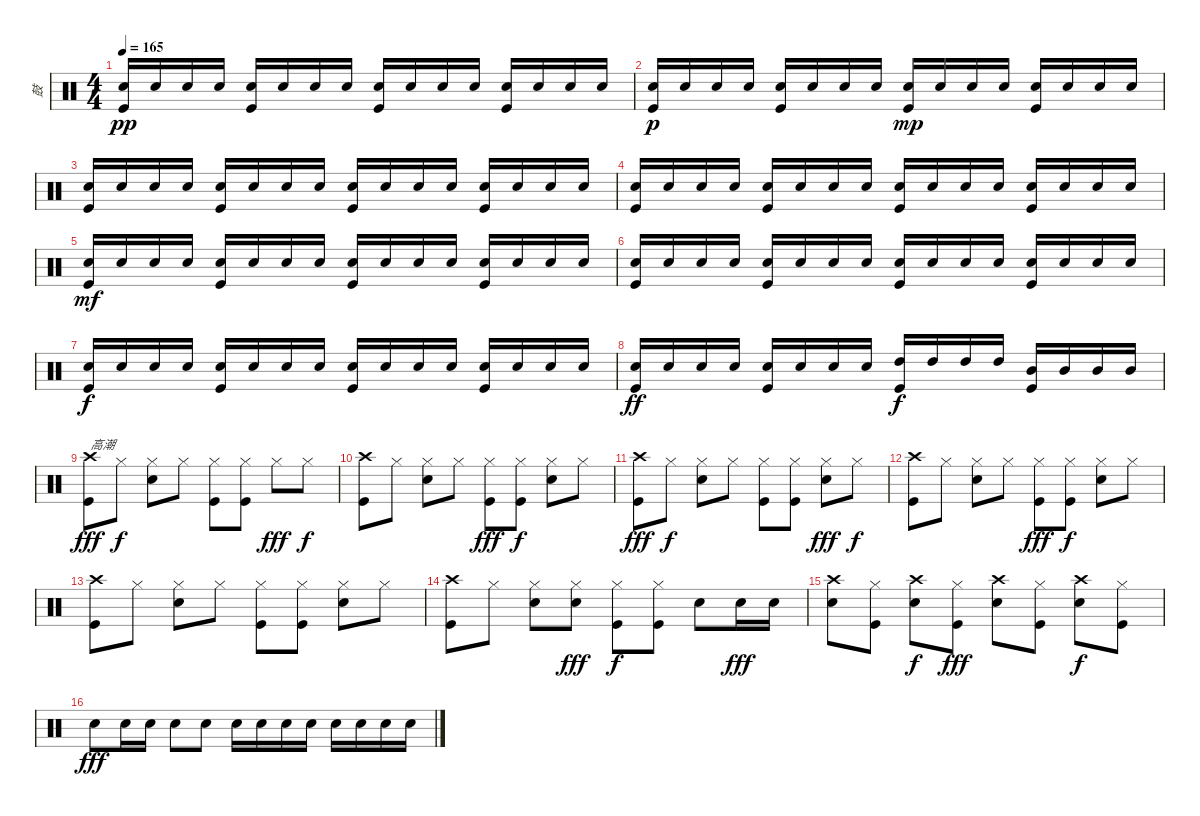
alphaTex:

\track ("鼓" "鼓") {instrument percussion}
\staff {score}
\articulation defaults
\ts (4 4)
\tempo 165
\clef neutral
\ks c
("Snare (hit) 2" "Kick (hit)").16{dy pp} "Snare (hit) 2".16 "Snare (hit) 2".16 "Snare (hit) 2".16 ("Snare (hit) 2" "Kick (hit)").16 "Snare (hit) 2".16 "Snare (hit) 2".16 "Snare (hit) 2".16 ("Snare (hit) 2" "Kick (hit)").16 "Snare (hit) 2".16 "Snare (hit) 2".16 "Snare (hit) 2".16 ("Snare (hit) 2" "Kick (hit)").16 "Snare (hit) 2".16 "Snare (hit) 2".16 "Snare (hit) 2".16 |
("Snare (hit) 2" "Kick (hit)").16{dy p} "Snare (hit) 2".16 "Snare (hit) 2".16 "Snare (hit) 2".16 ("Snare (hit) 2" "Kick (hit)").16 "Snare (hit) 2".16 "Snare (hit) 2".16 "Snare (hit) 2".16 ("Snare (hit) 2" "Kick (hit)").16{dy mp} "Snare (hit) 2".16 "Snare (hit) 2".16 "Snare (hit) 2".16 ("Snare (hit) 2" "Kick (hit)").16 "Snare (hit) 2".16 "Snare (hit) 2".16 "Snare (hit) 2".16 |
("Snare (hit) 2" "Kick (hit)").16 "Snare (hit) 2".16 "Snare (hit) 2".16 "Snare (hit) 2".16 ("Snare (hit) 2" "Kick (hit)").16 "Snare (hit) 2".16 "Snare (hit) 2".16 "Snare (hit) 2".16 ("Snare (hit) 2" "Kick (hit)").16 "Snare (hit) 2".16 "Snare (hit) 2".16 "Snare (hit) 2".16 ("Snare (hit) 2" "Kick (hit)").16 "Snare (hit) 2".16 "Snare (hit) 2".16 "Snare (hit) 2".16 |
("Snare (hit) 2" "Kick (hit)").16 "Snare (hit) 2".16 "Snare (hit) 2".16 "Snare (hit) 2".16 ("Snare (hit) 2" "Kick (hit)").16 "Snare (hit) 2".16 "Snare (hit) 2".16 "Snare (hit) 2".16 ("Snare (hit) 2" "Kick (hit)").16 "Snare (hit) 2".16 "Snare (hit) 2".16 "Snare (hit) 2".16 ("Snare (hit) 2" "Kick (hit)").16 "Snare (hit) 2".16 "Snare (hit) 2".16 "Snare (hit) 2".16 |
("Snare (hit) 2" "Kick (hit)").16{dy mf} "Snare (hit) 2".16 "Snare (hit) 2".16 "Snare (hit) 2".16 ("Snare (hit) 2" "Kick (hit)").16 "Snare (hit) 2".16 "Snare (hit) 2".16 "Snare (hit) 2".16 ("Snare (hit) 2" "Kick (hit)").16 "Snare (hit) 2".16 "Snare (hit) 2".16 "Snare (hit) 2".16 ("Snare (hit) 2" "Kick (hit)").16 "Snare (hit) 2".16 "Snare (hit) 2".16 "Snare (hit) 2".16 |
("Snare (hit) 2" "Kick (hit)").16 "Snare (hit) 2".16 "Snare (hit) 2".16 "Snare (hit) 2".16 ("Snare (hit) 2" "Kick (hit)").16 "Snare (hit) 2".16 "Snare (hit) 2".16 "Snare (hit) 2".16 ("Snare (hit) 2" "Kick (hit)").16 "Snare (hit) 2".16 "Snare (hit) 2".16 "Snare (hit) 2".16 ("Snare (hit) 2" "Kick (hit)").16 "Snare (hit) 2".16 "Snare (hit) 2".16 "Snare (hit) 2".16 |
("Snare (hit) 2" "Kick (hit)").16{dy f} "Snare (hit) 2".16 "Snare (hit) 2".16 "Snare (hit) 2".16 ("Snare (hit) 2" "Kick (hit)").16 "Snare (hit) 2".16 "Snare (hit) 2".16 "Snare (hit) 2".16 ("Snare (hit) 2" "Kick (hit)").16 "Snare (hit) 2".16 "Snare (hit) 2".16 "Snare (hit) 2".16 ("Snare (hit) 2" "Kick (hit)").16 "Snare (hit) 2".16 "Snare (hit) 2".16 "Snare (hit) 2".16 |
("Snare (hit) 2" "Kick (hit)").16{dy ff} "Snare (hit) 2".16 "Snare (hit) 2".16 "Snare (hit) 2".16 ("Snare (hit) 2" "Kick (hit)").16 "Snare (hit) 2".16 "Snare (hit) 2".16 "Snare (hit) 2".16 ("High Tom (hit)" "Kick (hit)").16{dy f} "High Tom (hit)".16 "High Tom (hit)".16 "High Tom (hit)".16 ("Mid Tom (hit)" "Kick (hit)").16 "Mid Tom (hit)".16 "Mid Tom (hit)".16 "Mid Tom (hit)".16 |
("Crash high (hit)" "Kick (hit)").8{txt "高潮" dy fff} "Hi-Hat (closed)".8{dy f} ("Hi-Hat (closed)" "Snare (hit) 2").8 "Hi-Hat (closed)".8 ("Hi-Hat (closed)" "Kick (hit)").8 ("Hi-Hat (closed)" "Kick (hit)").8 "Hi-Hat (closed)".8{dy fff} "Hi-Hat (closed)".8{dy f} |
("Crash high (hit)" "Kick (hit)").8 "Hi-Hat (closed)".8 ("Hi-Hat (closed)" "Snare (hit) 2").8 "Hi-Hat (closed)".8 ("Hi-Hat (closed)" "Kick (hit)").8{dy fff} ("Hi-Hat (closed)" "Kick (hit)").8{dy f} ("Hi-Hat (closed)" "Snare (hit) 2").8 "Hi-Hat (closed)".8 |
("Crash high (hit)" "Kick (hit)").8{dy fff} "Hi-Hat (closed)".8{dy f} ("Hi-Hat (closed)" "Snare (hit) 2").8 "Hi-Hat (closed)".8 ("Hi-Hat (closed)" "Kick (hit)").8 ("Hi-Hat (closed)" "Kick (hit)").8 ("Hi-Hat (closed)" "Snare (hit) 2").8{dy fff} "Hi-Hat (closed)".8{dy f} |
("Crash high (hit)" "Kick (hit)").8 "Hi-Hat (closed)".8 ("Hi-Hat (closed)" "Snare (hit) 2").8 "Hi-Hat (closed)".8 ("Hi-Hat (closed)" "Kick (hit)").8{dy fff} ("Hi-Hat (closed)" "Kick (hit)").8{dy f} ("Hi-Hat (closed)" "Snare (hit) 2").8 "Hi-Hat (closed)".8 |
("Crash high (hit)" "Kick (hit)").8 "Hi-Hat (closed)".8 ("Hi-Hat (closed)" "Snare (hit) 2").8 "Hi-Hat (closed)".8 ("Hi-Hat (closed)" "Kick (hit)").8 ("Hi-Hat (closed)" "Kick (hit)").8 ("Hi-Hat (closed)" "Snare (hit) 2").8 "Hi-Hat (closed)".8 |
("Crash high (hit)" "Kick (hit)").8 "Hi-Hat (closed)".8 ("Hi-Hat (closed)" "Snare (hit) 2").8 ("Hi-Hat (closed)" "Snare (hit) 2").8{dy fff} ("Hi-Hat (closed)" "Kick (hit)").8{dy f} ("Hi-Hat (closed)" "Kick (hit)").8 "Snare (hit) 2".8 "Snare (hit) 2".16{dy fff} "Snare (hit) 2".16 |
("Crash high (hit)" "Snare (hit) 2").8 ("Hi-Hat (closed)" "Kick (hit)").8 ("Crash high (hit)" "Snare (hit) 2").8{dy f} ("Hi-Hat (closed)" "Kick (hit)").8{dy fff} ("Crash high (hit)" "Snare (hit) 2").8 ("Hi-Hat (closed)" "Kick (hit)").8 ("Crash high (hit)" "Snare (hit) 2").8{dy f} ("Hi-Hat (closed)" "Kick (hit)").8 |
"Snare (hit) 2".8{dy fff} "Snare (hit) 2".16 "Snare (hit) 2".16 "Snare (hit) 2".8 "Snare (hit) 2".8 "Snare (hit) 2".16 "Snare (hit) 2".16 "Snare (hit) 2".16 "Snare (hit) 2".16 "Snare (hit) 2".16 "Snare (hit) 2".16 "Snare (hit) 2".16 "Snare (hit) 2".16
